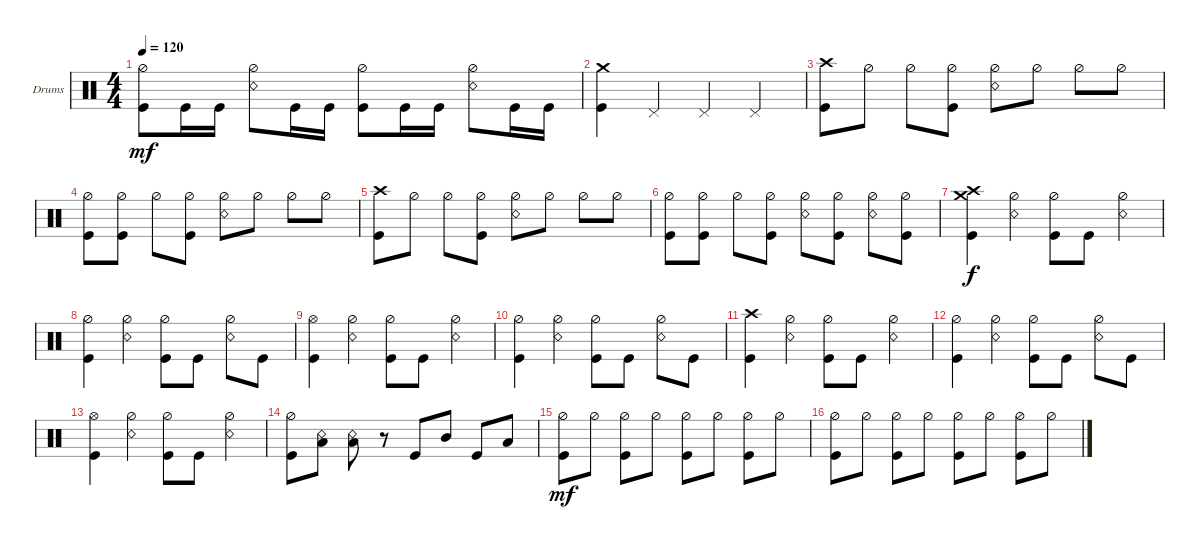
\defaultSystemsLayout 4
\bracketExtendMode groupsimilarinstruments
\firstSystemTrackNameOrientation horizontal
\otherSystemsTrackNameOrientation horizontal
\track ("Drumkit" "Drums") {instrument percussion}
\staff {score}
\articulation defaults
\ts (4 4)
\tempo 120
\clef neutral
\ks c
("Kick (hit)" "Hi-Hat (half)").8{dy mf} "Kick (hit)".16 "Kick (hit)".16 ("Snare (rim shot)" "Hi-Hat (half)").8 "Kick (hit)".16 "Kick (hit)".16 ("Kick (hit)" "Hi-Hat (half)").8 "Kick (hit)".16 "Kick (hit)".16 ("Snare (rim shot)" "Hi-Hat (half)").8 "Kick (hit)".16 "Kick (hit)".16 |
("Kick (hit)" "Crash medium (hit)").4 "Pedal Hi-Hat (hit)".4 "Pedal Hi-Hat (hit)".4 "Pedal Hi-Hat (hit)".4 |
("Kick (hit)" "Crash high (hit)").8 "Hi-Hat (half)".8 "Hi-Hat (half)".8 ("Kick (hit)" "Hi-Hat (half)").8 ("Snare (rim shot)" "Hi-Hat (half)").8 "Hi-Hat (half)".8 "Hi-Hat (half)".8 "Hi-Hat (half)".8 |
("Kick (hit)" "Hi-Hat (half)").8 ("Hi-Hat (half)" "Kick (hit)").8 "Hi-Hat (half)".8 ("Kick (hit)" "Hi-Hat (half)").8 ("Snare (rim shot)" "Hi-Hat (half)").8 "Hi-Hat (half)".8 "Hi-Hat (half)".8 "Hi-Hat (half)".8 |
("Kick (hit)" "Crash high (hit)").8 "Hi-Hat (half)".8 "Hi-Hat (half)".8 ("Kick (hit)" "Hi-Hat (half)").8 ("Snare (rim shot)" "Hi-Hat (half)").8 "Hi-Hat (half)".8 "Hi-Hat (half)".8 "Hi-Hat (half)".8 |
("Kick (hit)" "Hi-Hat (half)").8 ("Hi-Hat (half)" "Kick (hit)").8 "Hi-Hat (half)".8 ("Kick (hit)" "Hi-Hat (half)").8 ("Snare (rim shot)" "Hi-Hat (half)").8 ("Hi-Hat (half)" "Kick (hit)").8 ("Hi-Hat (half)" "Snare (rim shot)").8 ("Hi-Hat (half)" "Kick (hit)").8 |
("Kick (hit)" "Crash high (hit)" "Crash medium (hit)").4{dy f} ("Snare (rim shot)" "Hi-Hat (half)").4 ("Kick (hit)" "Hi-Hat (half)").8 "Kick (hit)".8 ("Snare (rim shot)" "Hi-Hat (half)").4 |
("Kick (hit)" "Hi-Hat (half)").4 ("Snare (rim shot)" "Hi-Hat (half)").4 ("Kick (hit)" "Hi-Hat (half)").8 "Kick (hit)".8 ("Snare (rim shot)" "Hi-Hat (half)").8 "Kick (hit)".8 |
("Kick (hit)" "Hi-Hat (open)").4 ("Snare (rim shot)" "Hi-Hat (half)").4 ("Kick (hit)" "Hi-Hat (half)").8 "Kick (hit)".8 ("Snare (rim shot)" "Hi-Hat (half)").4 |
("Kick (hit)" "Hi-Hat (half)").4 ("Snare (rim shot)" "Hi-Hat (half)").4 ("Kick (hit)" "Hi-Hat (half)").8 "Kick (hit)".8 ("Snare (rim shot)" "Hi-Hat (half)").8 "Kick (hit)".8 |
("Kick (hit)" "Crash high (hit)").4 ("Snare (rim shot)" "Hi-Hat (half)").4 ("Kick (hit)" "Hi-Hat (half)").8 "Kick (hit)".8 ("Snare (rim shot)" "Hi-Hat (half)").4 |
("Kick (hit)" "Hi-Hat (half)").4 ("Snare (rim shot)" "Hi-Hat (half)").4 ("Kick (hit)" "Hi-Hat (half)").8 "Kick (hit)".8 ("Snare (rim shot)" "Hi-Hat (half)").8 "Kick (hit)".8 |
("Kick (hit)" "Hi-Hat (open)").4 ("Snare (rim shot)" "Hi-Hat (half)").4 ("Kick (hit)" "Hi-Hat (half)").8 "Kick (hit)".8 ("Snare (rim shot)" "Hi-Hat (half)").4 |
("Kick (hit)" "Hi-Hat (half)").8 ("Snare (rim shot)" "Low Tom (hit)").8 ("Snare (rim shot)" "Low Tom (hit)").8 r.8 "Kick (hit)".8 "Mid Tom (hit)".8 "Kick (hit)".8 "Low Tom (hit)".8 |
("Kick (hit)" "Hi-Hat (half)").8{dy mf} "Hi-Hat (half)".8 ("Kick (hit)" "Hi-Hat (half)").8 "Hi-Hat (half)".8 ("Kick (hit)" "Hi-Hat (half)").8 "Hi-Hat (half)".8 ("Kick (hit)" "Hi-Hat (half)").8 "Hi-Hat (half)".8 |
("Kick (hit)" "Hi-Hat (half)").8 "Hi-Hat (half)".8 ("Kick (hit)" "Hi-Hat (half)").8 "Hi-Hat (half)".8 ("Kick (hit)" "Hi-Hat (half)").8 "Hi-Hat (half)".8 ("Kick (hit)" "Hi-Hat (half)").8 "Hi-Hat (half)".8
